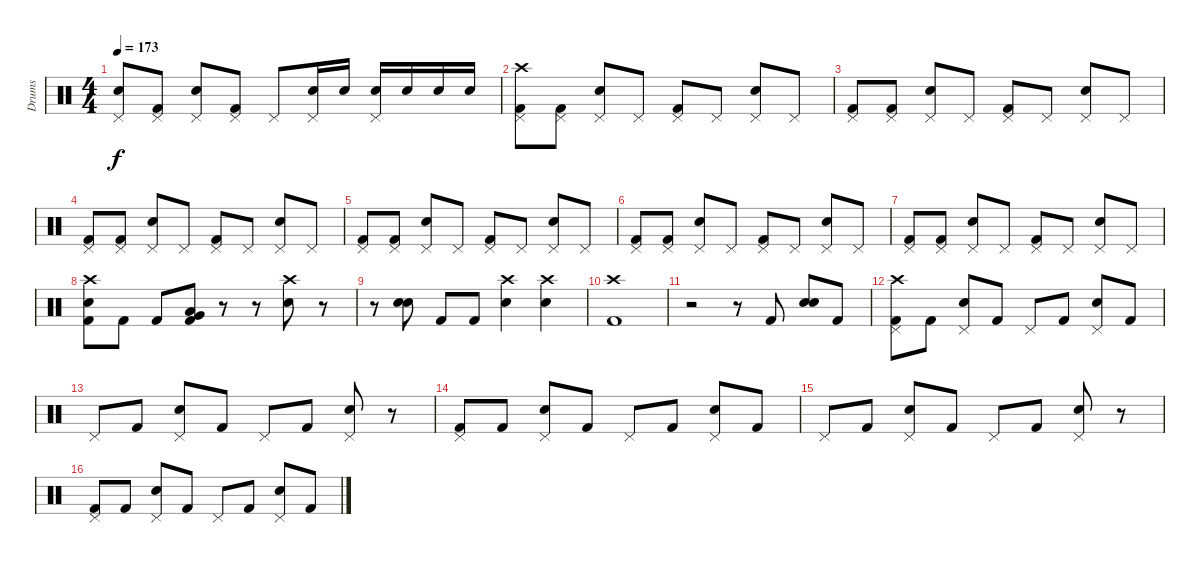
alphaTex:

\track ("Drums" "Drums") {instrument percussion}
\staff {score}
\articulation defaults
\ts (4 4)
\tempo 173
\clef neutral
\ks c
("Pedal Hi-Hat (hit)" "Snare (hit) 2").8{dy f} ("Pedal Hi-Hat (hit)" "Kick (hit) 2").8 ("Pedal Hi-Hat (hit)" "Snare (hit) 2").8 ("Pedal Hi-Hat (hit)" "Kick (hit) 2").8 "Pedal Hi-Hat (hit)".8 ("Pedal Hi-Hat (hit)" "Snare (hit) 2").16 "Snare (hit) 2".16 ("Pedal Hi-Hat (hit)" "Snare (hit) 2").16 "Snare (hit) 2".16 "Snare (hit) 2".16 "Snare (hit) 2".16 |
("Crash high (hit)" "Pedal Hi-Hat (hit)" "Kick (hit) 2").8 ("Pedal Hi-Hat (hit)" "Kick (hit) 2").8 ("Pedal Hi-Hat (hit)" "Snare (hit) 2").8 "Pedal Hi-Hat (hit)".8 ("Pedal Hi-Hat (hit)" "Kick (hit) 2").8 "Pedal Hi-Hat (hit)".8 ("Pedal Hi-Hat (hit)" "Snare (hit) 2").8 "Pedal Hi-Hat (hit)".8 |
("Pedal Hi-Hat (hit)" "Kick (hit) 2").8 ("Pedal Hi-Hat (hit)" "Kick (hit) 2").8 ("Pedal Hi-Hat (hit)" "Snare (hit) 2").8 "Pedal Hi-Hat (hit)".8 ("Pedal Hi-Hat (hit)" "Kick (hit) 2").8 "Pedal Hi-Hat (hit)".8 ("Pedal Hi-Hat (hit)" "Snare (hit) 2").8 "Pedal Hi-Hat (hit)".8 |
("Pedal Hi-Hat (hit)" "Kick (hit) 2").8 ("Pedal Hi-Hat (hit)" "Kick (hit) 2").8 ("Pedal Hi-Hat (hit)" "Snare (hit) 2").8 "Pedal Hi-Hat (hit)".8 ("Pedal Hi-Hat (hit)" "Kick (hit) 2").8 "Pedal Hi-Hat (hit)".8 ("Pedal Hi-Hat (hit)" "Snare (hit) 2").8 "Pedal Hi-Hat (hit)".8 |
("Pedal Hi-Hat (hit)" "Kick (hit) 2").8 ("Pedal Hi-Hat (hit)" "Kick (hit) 2").8 ("Pedal Hi-Hat (hit)" "Snare (hit) 2").8 "Pedal Hi-Hat (hit)".8 ("Pedal Hi-Hat (hit)" "Kick (hit) 2").8 "Pedal Hi-Hat (hit)".8 ("Pedal Hi-Hat (hit)" "Snare (hit) 2").8 "Pedal Hi-Hat (hit)".8 |
("Pedal Hi-Hat (hit)" "Kick (hit) 2").8 ("Pedal Hi-Hat (hit)" "Kick (hit) 2").8 ("Pedal Hi-Hat (hit)" "Snare (hit) 2").8 "Pedal Hi-Hat (hit)".8 ("Pedal Hi-Hat (hit)" "Kick (hit) 2").8 "Pedal Hi-Hat (hit)".8 ("Pedal Hi-Hat (hit)" "Snare (hit) 2").8 "Pedal Hi-Hat (hit)".8 |
("Pedal Hi-Hat (hit)" "Kick (hit) 2").8 ("Pedal Hi-Hat (hit)" "Kick (hit) 2").8 ("Pedal Hi-Hat (hit)" "Snare (hit) 2").8 "Pedal Hi-Hat (hit)".8 ("Pedal Hi-Hat (hit)" "Kick (hit) 2").8 "Pedal Hi-Hat (hit)".8 ("Pedal Hi-Hat (hit)" "Snare (hit) 2").8 "Pedal Hi-Hat (hit)".8 |
("Crash high (hit)" "Snare (hit) 2" "Kick (hit) 2").8 "Kick (hit) 2".8 "Kick (hit) 2".8 ("Kick (hit) 2" "Very Low Tom (hit)" "Low Floor Tom (hit)").8 r.8 r.8 ("Snare (hit) 2" "Crash high (hit)").8 r.8 |
r.8 ("Snare (hit) 2" "Electric Snare (hit)").8 "Kick (hit) 2".8 "Kick (hit) 2".8 ("Crash high (hit)" "Snare (hit) 2").4 ("Crash high (hit)" "Snare (hit) 2").4 |
("Crash high (hit)" "Kick (hit) 2").1 |
r.2 r.8 "Kick (hit) 2".8 ("Electric Snare (hit)" "Snare (hit) 2").8 "Kick (hit) 2".8 |
("Crash high (hit)" "Pedal Hi-Hat (hit)" "Kick (hit) 2").8 "Kick (hit) 2".8 ("Pedal Hi-Hat (hit)" "Snare (hit) 2").8 "Kick (hit) 2".8 "Pedal Hi-Hat (hit)".8 "Kick (hit) 2".8 ("Pedal Hi-Hat (hit)" "Snare (hit) 2").8 "Kick (hit) 2".8 |
"Pedal Hi-Hat (hit)".8 "Kick (hit) 2".8 ("Pedal Hi-Hat (hit)" "Snare (hit) 2").8 "Kick (hit) 2".8 "Pedal Hi-Hat (hit)".8 "Kick (hit) 2".8 ("Pedal Hi-Hat (hit)" "Snare (hit) 2").8 r.8 |
("Pedal Hi-Hat (hit)" "Kick (hit) 2").8 "Kick (hit) 2".8 ("Pedal Hi-Hat (hit)" "Snare (hit) 2").8 "Kick (hit) 2".8 "Pedal Hi-Hat (hit)".8 "Kick (hit) 2".8 ("Pedal Hi-Hat (hit)" "Snare (hit) 2").8 "Kick (hit) 2".8 |
"Pedal Hi-Hat (hit)".8 "Kick (hit) 2".8 ("Pedal Hi-Hat (hit)" "Snare (hit) 2").8 "Kick (hit) 2".8 "Pedal Hi-Hat (hit)".8 "Kick (hit) 2".8 ("Pedal Hi-Hat (hit)" "Snare (hit) 2").8 r.8 |
("Pedal Hi-Hat (hit)" "Kick (hit) 2").8 "Kick (hit) 2".8 ("Pedal Hi-Hat (hit)" "Snare (hit) 2").8 "Kick (hit) 2".8 "Pedal Hi-Hat (hit)".8 "Kick (hit) 2".8 ("Pedal Hi-Hat (hit)" "Snare (hit) 2").8 "Kick (hit) 2".8
